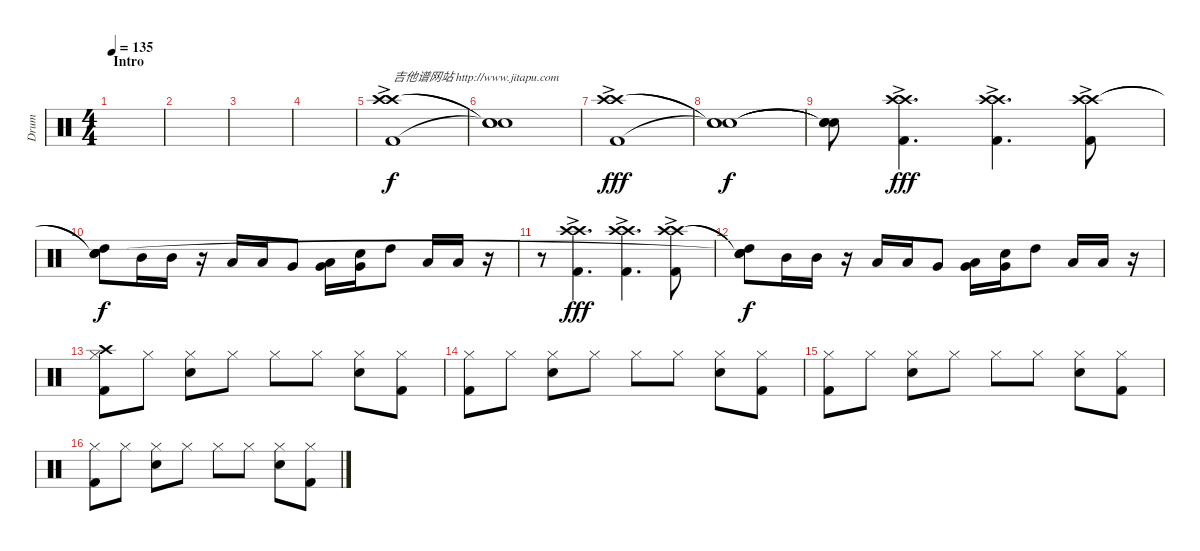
\track ("Drum" "Drum") {instrument percussion}
\staff {score}
\articulation defaults
\ts (4 4)
\section ("" "Intro")
\tempo 135
\clef neutral
\ks c
|
|
|
|
("Crash high (hit)"{ac} "Crash high (hit)"{ac} "Kick (hit) 2"{ac}).1{txt "吉他谱网站 http://www.jitapu.com"} |
("Snare (hit)"{t} "Snare (hit)"{t} "Snare (hit)"{t}).1{dy f} |
("Crash high (hit)"{ac} "Crash high (hit)"{ac} "Kick (hit) 2"{ac}).1{dy fff} |
("Snare (hit)"{t} "Snare (hit)"{t} "Snare (hit)"{t}).1{dy f} |
("Snare (hit)"{t} "Snare (hit)"{t} "Snare (hit)"{t}).8 ("Crash high (hit)"{ac} "Crash high (hit)"{ac} "Kick (hit) 2"{ac}).4{d dy fff} ("Crash high (hit)"{ac} "Crash high (hit)"{ac} "Kick (hit) 2"{ac}).4{d} ("Crash high (hit)"{ac} "Crash high (hit)"{ac} "Kick (hit) 2"{ac}).8 |
("Snare (hit)"{t} "Snare (hit)"{t} "High Tom (hit)" "Snare (hit)").8{dy f} "Mid Tom (hit)".16 "Mid Tom (hit)".16 r.16 "Low Tom (hit)".16 "Low Tom (hit)".16 "Very Low Tom (hit)".8 ("Low Floor Tom (hit)" "Very Low Tom (hit)").16 ("Electric Snare (hit)" "Very Low Tom (hit)").16 "High Tom (hit)".8 "Low Floor Tom (hit)".16 "Low Floor Tom (hit)".16 r.16 |
r.8 ("Crash high (hit)"{ac} "Crash high (hit)"{ac} "Kick (hit) 2"{ac}).4{d dy fff} ("Crash high (hit)"{ac} "Crash high (hit)"{ac} "Kick (hit) 2"{ac}).4{d} ("Crash high (hit)"{ac} "Crash high (hit)"{ac} "Kick (hit) 2"{ac}).8 |
("Snare (hit)"{t} "Snare (hit)"{t} "High Tom (hit)" "Snare (hit)"{t}).8{dy f} "Mid Tom (hit)".16 "Mid Tom (hit)".16 r.16 "Low Tom (hit)".16 "Low Tom (hit)".16 "Very Low Tom (hit)".8 ("Low Floor Tom (hit)" "Very Low Tom (hit)").16 ("Electric Snare (hit)" "Very Low Tom (hit)").16 "High Tom (hit)".8 "Low Floor Tom (hit)".16 "Low Floor Tom (hit)".16 r.16 |
("Crash high (hit)" "Hi-Hat (closed)" "Kick (hit) 2").8 "Hi-Hat (closed)".8 ("Snare (hit) 2" "Hi-Hat (closed)").8 "Hi-Hat (closed)".8 "Hi-Hat (closed)".8 "Hi-Hat (closed)".8 ("Snare (hit) 2" "Hi-Hat (closed)").8 ("Hi-Hat (closed)" "Kick (hit) 2").8 |
("Hi-Hat (closed)" "Kick (hit) 2").8 "Hi-Hat (closed)".8 ("Snare (hit) 2" "Hi-Hat (closed)").8 "Hi-Hat (closed)".8 "Hi-Hat (closed)".8 "Hi-Hat (closed)".8 ("Snare (hit) 2" "Hi-Hat (closed)").8 ("Hi-Hat (closed)" "Kick (hit) 2").8 |
("Hi-Hat (closed)" "Kick (hit) 2").8 "Hi-Hat (closed)".8 ("Snare (hit) 2" "Hi-Hat (closed)").8 "Hi-Hat (closed)".8 "Hi-Hat (closed)".8 "Hi-Hat (closed)".8 ("Snare (hit) 2" "Hi-Hat (closed)").8 ("Hi-Hat (closed)" "Kick (hit) 2").8 |
("Hi-Hat (closed)" "Kick (hit) 2").8 "Hi-Hat (closed)".8 ("Snare (hit) 2" "Hi-Hat (closed)").8 "Hi-Hat (closed)".8 "Hi-Hat (closed)".8 "Hi-Hat (closed)".8 ("Snare (hit) 2" "Hi-Hat (closed)").8 ("Hi-Hat (closed)" "Kick (hit) 2").8
